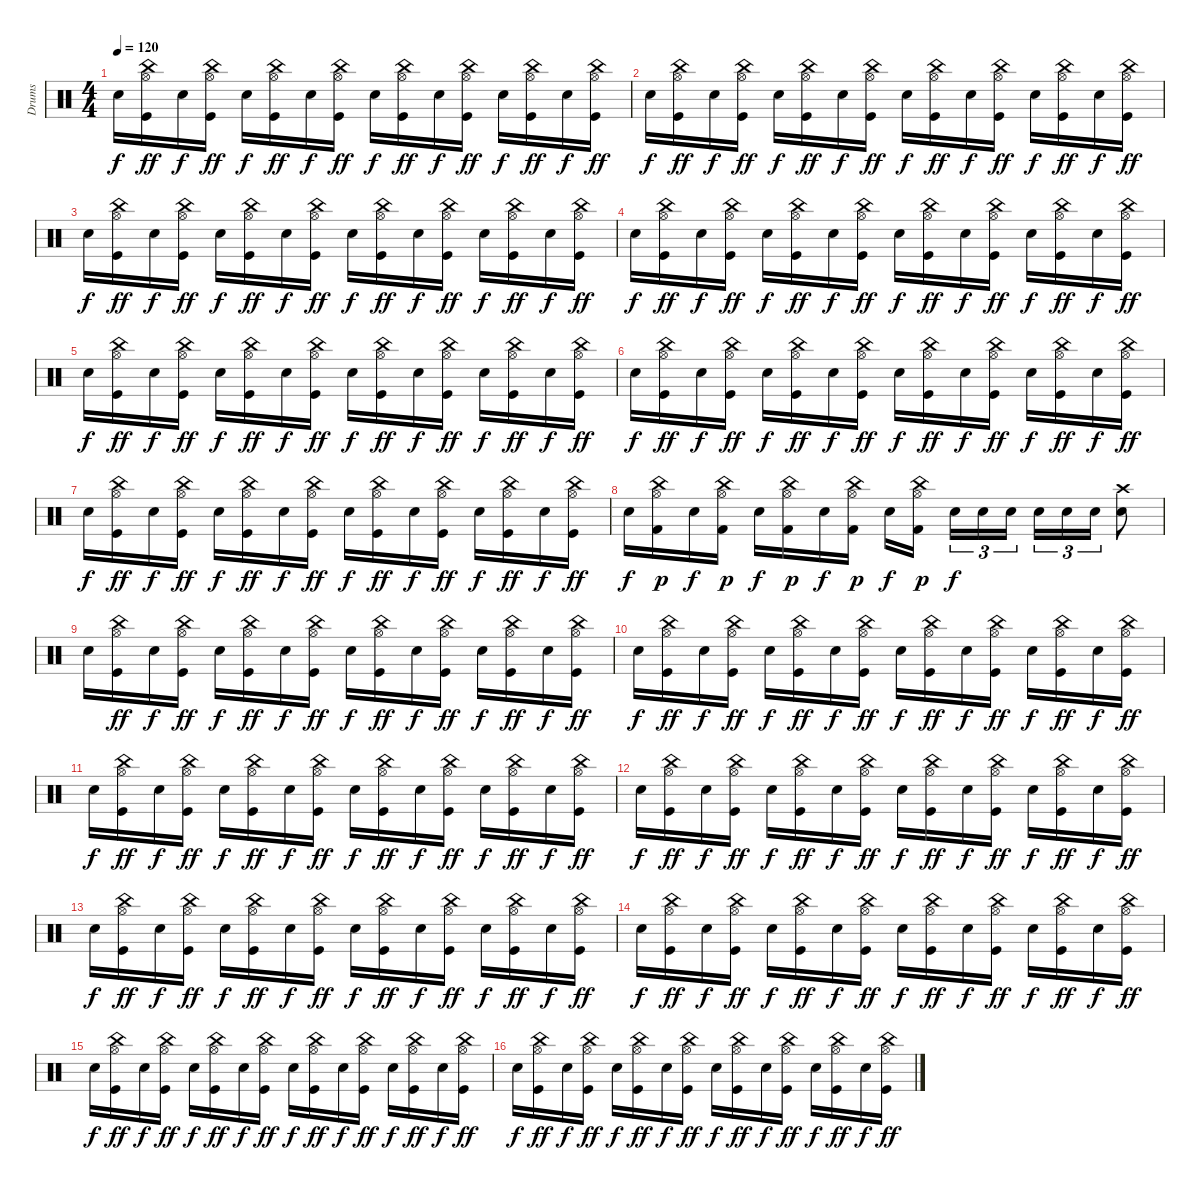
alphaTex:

\track ("Drums" "Drums") {instrument percussion}
\staff {score}
\articulation defaults
\ts (4 4)
\tempo 120
\clef neutral
\ks c "Electric Snare (hit)".16{dy f}
("China (hit)" "Hi-Hat (open)" "Kick (hit)").16{dy ff} "Electric Snare (hit)".16{dy f} ("China (hit)" "Hi-Hat (open)" "Kick (hit)").16{dy ff} "Electric Snare (hit)".16{dy f} ("China (hit)" "Hi-Hat (open)" "Kick (hit)").16{dy ff} "Electric Snare (hit)".16{dy f} ("China (hit)" "Hi-Hat (open)" "Kick (hit)").16{dy ff} "Electric Snare (hit)".16{dy f} ("China (hit)" "Hi-Hat (open)" "Kick (hit)").16{dy ff} "Electric Snare (hit)".16{dy f} ("China (hit)" "Hi-Hat (open)" "Kick (hit)").16{dy ff} "Electric Snare (hit)".16{dy f} ("China (hit)" "Hi-Hat (open)" "Kick (hit)").16{dy ff} "Electric Snare (hit)".16{dy f} ("China (hit)" "Hi-Hat (open)" "Kick (hit)").16{dy ff} |
"Electric Snare (hit)".16{dy f} ("China (hit)" "Hi-Hat (open)" "Kick (hit)").16{dy ff} "Electric Snare (hit)".16{dy f} ("China (hit)" "Hi-Hat (open)" "Kick (hit)").16{dy ff} "Electric Snare (hit)".16{dy f} ("China (hit)" "Hi-Hat (open)" "Kick (hit)").16{dy ff} "Electric Snare (hit)".16{dy f} ("China (hit)" "Hi-Hat (open)" "Kick (hit)").16{dy ff} "Electric Snare (hit)".16{dy f} ("China (hit)" "Hi-Hat (open)" "Kick (hit)").16{dy ff} "Electric Snare (hit)".16{dy f} ("China (hit)" "Hi-Hat (open)" "Kick (hit)").16{dy ff} "Electric Snare (hit)".16{dy f} ("China (hit)" "Hi-Hat (open)" "Kick (hit)").16{dy ff} "Electric Snare (hit)".16{dy f} ("China (hit)" "Hi-Hat (open)" "Kick (hit)").16{dy ff} |
"Electric Snare (hit)".16{dy f} ("China (hit)" "Hi-Hat (open)" "Kick (hit)").16{dy ff} "Electric Snare (hit)".16{dy f} ("China (hit)" "Hi-Hat (open)" "Kick (hit)").16{dy ff} "Electric Snare (hit)".16{dy f} ("China (hit)" "Hi-Hat (open)" "Kick (hit)").16{dy ff} "Electric Snare (hit)".16{dy f} ("China (hit)" "Hi-Hat (open)" "Kick (hit)").16{dy ff} "Electric Snare (hit)".16{dy f} ("China (hit)" "Hi-Hat (open)" "Kick (hit)").16{dy ff} "Electric Snare (hit)".16{dy f} ("China (hit)" "Hi-Hat (open)" "Kick (hit)").16{dy ff} "Electric Snare (hit)".16{dy f} ("China (hit)" "Hi-Hat (open)" "Kick (hit)").16{dy ff} "Electric Snare (hit)".16{dy f} ("China (hit)" "Hi-Hat (open)" "Kick (hit)").16{dy ff} |
"Electric Snare (hit)".16{dy f} ("China (hit)" "Hi-Hat (open)" "Kick (hit)").16{dy ff} "Electric Snare (hit)".16{dy f} ("China (hit)" "Hi-Hat (open)" "Kick (hit)").16{dy ff} "Electric Snare (hit)".16{dy f} ("China (hit)" "Hi-Hat (open)" "Kick (hit)").16{dy ff} "Electric Snare (hit)".16{dy f} ("China (hit)" "Hi-Hat (open)" "Kick (hit)").16{dy ff} "Electric Snare (hit)".16{dy f} ("China (hit)" "Hi-Hat (open)" "Kick (hit)").16{dy ff} "Electric Snare (hit)".16{dy f} ("China (hit)" "Hi-Hat (open)" "Kick (hit)").16{dy ff} "Electric Snare (hit)".16{dy f} ("China (hit)" "Hi-Hat (open)" "Kick (hit)").16{dy ff} "Electric Snare (hit)".16{dy f} ("China (hit)" "Hi-Hat (open)" "Kick (hit)").16{dy ff} |
"Electric Snare (hit)".16{dy f} ("China (hit)" "Hi-Hat (open)" "Kick (hit)").16{dy ff} "Electric Snare (hit)".16{dy f} ("China (hit)" "Hi-Hat (open)" "Kick (hit)").16{dy ff} "Electric Snare (hit)".16{dy f} ("China (hit)" "Hi-Hat (open)" "Kick (hit)").16{dy ff} "Electric Snare (hit)".16{dy f} ("China (hit)" "Hi-Hat (open)" "Kick (hit)").16{dy ff} "Electric Snare (hit)".16{dy f} ("China (hit)" "Hi-Hat (open)" "Kick (hit)").16{dy ff} "Electric Snare (hit)".16{dy f} ("China (hit)" "Hi-Hat (open)" "Kick (hit)").16{dy ff} "Electric Snare (hit)".16{dy f} ("China (hit)" "Hi-Hat (open)" "Kick (hit)").16{dy ff} "Electric Snare (hit)".16{dy f} ("China (hit)" "Hi-Hat (open)" "Kick (hit)").16{dy ff} |
"Electric Snare (hit)".16{dy f} ("China (hit)" "Hi-Hat (open)" "Kick (hit)").16{dy ff} "Electric Snare (hit)".16{dy f} ("China (hit)" "Hi-Hat (open)" "Kick (hit)").16{dy ff} "Electric Snare (hit)".16{dy f} ("China (hit)" "Hi-Hat (open)" "Kick (hit)").16{dy ff} "Electric Snare (hit)".16{dy f} ("China (hit)" "Hi-Hat (open)" "Kick (hit)").16{dy ff} "Electric Snare (hit)".16{dy f} ("China (hit)" "Hi-Hat (open)" "Kick (hit)").16{dy ff} "Electric Snare (hit)".16{dy f} ("China (hit)" "Hi-Hat (open)" "Kick (hit)").16{dy ff} "Electric Snare (hit)".16{dy f} ("China (hit)" "Hi-Hat (open)" "Kick (hit)").16{dy ff} "Electric Snare (hit)".16{dy f} ("China (hit)" "Hi-Hat (open)" "Kick (hit)").16{dy ff} |
"Electric Snare (hit)".16{dy f} ("China (hit)" "Hi-Hat (open)" "Kick (hit)").16{dy ff} "Electric Snare (hit)".16{dy f} ("China (hit)" "Hi-Hat (open)" "Kick (hit)").16{dy ff} "Electric Snare (hit)".16{dy f} ("China (hit)" "Hi-Hat (open)" "Kick (hit)").16{dy ff} "Electric Snare (hit)".16{dy f} ("China (hit)" "Hi-Hat (open)" "Kick (hit)").16{dy ff} "Electric Snare (hit)".16{dy f} ("China (hit)" "Hi-Hat (open)" "Kick (hit)").16{dy ff} "Electric Snare (hit)".16{dy f} ("China (hit)" "Hi-Hat (open)" "Kick (hit)").16{dy ff} "Electric Snare (hit)".16{dy f} ("China (hit)" "Hi-Hat (open)" "Kick (hit)").16{dy ff} "Electric Snare (hit)".16{dy f} ("China (hit)" "Hi-Hat (open)" "Kick (hit)").16{dy ff} |
"Electric Snare (hit)".16{dy f} ("Hi-Hat (open)" "China (hit)" "Kick (hit) 2").16{dy p} "Electric Snare (hit)".16{dy f} ("Hi-Hat (open)" "China (hit)" "Kick (hit) 2").16{dy p} "Electric Snare (hit)".16{dy f} ("Hi-Hat (open)" "China (hit)" "Kick (hit) 2").16{dy p} "Electric Snare (hit)".16{dy f} ("Hi-Hat (open)" "China (hit)" "Kick (hit) 2").16{dy p} "Electric Snare (hit)".16{dy f} ("Hi-Hat (open)" "China (hit)" "Kick (hit) 2").16{dy p} "Electric Snare (hit)".16{tu (3 2) dy f} "Electric Snare (hit)".16{tu (3 2)} "Electric Snare (hit)".16{tu (3 2)} "Electric Snare (hit)".16{tu (3 2)} "Electric Snare (hit)".16{tu (3 2)} "Electric Snare (hit)".16{tu (3 2)} ("Crash high (hit)" "Electric Snare (hit)").8 |
"Electric Snare (hit)".16 ("China (hit)" "Hi-Hat (open)" "Kick (hit)").16{dy ff} "Electric Snare (hit)".16{dy f} ("China (hit)" "Hi-Hat (open)" "Kick (hit)").16{dy ff} "Electric Snare (hit)".16{dy f} ("China (hit)" "Hi-Hat (open)" "Kick (hit)").16{dy ff} "Electric Snare (hit)".16{dy f} ("China (hit)" "Hi-Hat (open)" "Kick (hit)").16{dy ff} "Electric Snare (hit)".16{dy f} ("China (hit)" "Hi-Hat (open)" "Kick (hit)").16{dy ff} "Electric Snare (hit)".16{dy f} ("China (hit)" "Hi-Hat (open)" "Kick (hit)").16{dy ff} "Electric Snare (hit)".16{dy f} ("China (hit)" "Hi-Hat (open)" "Kick (hit)").16{dy ff} "Electric Snare (hit)".16{dy f} ("China (hit)" "Hi-Hat (open)" "Kick (hit)").16{dy ff} |
"Electric Snare (hit)".16{dy f} ("China (hit)" "Hi-Hat (open)" "Kick (hit)").16{dy ff} "Electric Snare (hit)".16{dy f} ("China (hit)" "Hi-Hat (open)" "Kick (hit)").16{dy ff} "Electric Snare (hit)".16{dy f} ("China (hit)" "Hi-Hat (open)" "Kick (hit)").16{dy ff} "Electric Snare (hit)".16{dy f} ("China (hit)" "Hi-Hat (open)" "Kick (hit)").16{dy ff} "Electric Snare (hit)".16{dy f} ("China (hit)" "Hi-Hat (open)" "Kick (hit)").16{dy ff} "Electric Snare (hit)".16{dy f} ("China (hit)" "Hi-Hat (open)" "Kick (hit)").16{dy ff} "Electric Snare (hit)".16{dy f} ("China (hit)" "Hi-Hat (open)" "Kick (hit)").16{dy ff} "Electric Snare (hit)".16{dy f} ("China (hit)" "Hi-Hat (open)" "Kick (hit)").16{dy ff} |
"Electric Snare (hit)".16{dy f} ("China (hit)" "Hi-Hat (open)" "Kick (hit)").16{dy ff} "Electric Snare (hit)".16{dy f} ("China (hit)" "Hi-Hat (open)" "Kick (hit)").16{dy ff} "Electric Snare (hit)".16{dy f} ("China (hit)" "Hi-Hat (open)" "Kick (hit)").16{dy ff} "Electric Snare (hit)".16{dy f} ("China (hit)" "Hi-Hat (open)" "Kick (hit)").16{dy ff} "Electric Snare (hit)".16{dy f} ("China (hit)" "Hi-Hat (open)" "Kick (hit)").16{dy ff} "Electric Snare (hit)".16{dy f} ("China (hit)" "Hi-Hat (open)" "Kick (hit)").16{dy ff} "Electric Snare (hit)".16{dy f} ("China (hit)" "Hi-Hat (open)" "Kick (hit)").16{dy ff} "Electric Snare (hit)".16{dy f} ("China (hit)" "Hi-Hat (open)" "Kick (hit)").16{dy ff} |
"Electric Snare (hit)".16{dy f} ("China (hit)" "Hi-Hat (open)" "Kick (hit)").16{dy ff} "Electric Snare (hit)".16{dy f} ("China (hit)" "Hi-Hat (open)" "Kick (hit)").16{dy ff} "Electric Snare (hit)".16{dy f} ("China (hit)" "Hi-Hat (open)" "Kick (hit)").16{dy ff} "Electric Snare (hit)".16{dy f} ("China (hit)" "Hi-Hat (open)" "Kick (hit)").16{dy ff} "Electric Snare (hit)".16{dy f} ("China (hit)" "Hi-Hat (open)" "Kick (hit)").16{dy ff} "Electric Snare (hit)".16{dy f} ("China (hit)" "Hi-Hat (open)" "Kick (hit)").16{dy ff} "Electric Snare (hit)".16{dy f} ("China (hit)" "Hi-Hat (open)" "Kick (hit)").16{dy ff} "Electric Snare (hit)".16{dy f} ("China (hit)" "Hi-Hat (open)" "Kick (hit)").16{dy ff} |
"Electric Snare (hit)".16{dy f} ("China (hit)" "Hi-Hat (open)" "Kick (hit)").16{dy ff} "Electric Snare (hit)".16{dy f} ("China (hit)" "Hi-Hat (open)" "Kick (hit)").16{dy ff} "Electric Snare (hit)".16{dy f} ("China (hit)" "Hi-Hat (open)" "Kick (hit)").16{dy ff} "Electric Snare (hit)".16{dy f} ("China (hit)" "Hi-Hat (open)" "Kick (hit)").16{dy ff} "Electric Snare (hit)".16{dy f} ("China (hit)" "Hi-Hat (open)" "Kick (hit)").16{dy ff} "Electric Snare (hit)".16{dy f} ("China (hit)" "Hi-Hat (open)" "Kick (hit)").16{dy ff} "Electric Snare (hit)".16{dy f} ("China (hit)" "Hi-Hat (open)" "Kick (hit)").16{dy ff} "Electric Snare (hit)".16{dy f} ("China (hit)" "Hi-Hat (open)" "Kick (hit)").16{dy ff} |
"Electric Snare (hit)".16{dy f} ("China (hit)" "Hi-Hat (open)" "Kick (hit)").16{dy ff} "Electric Snare (hit)".16{dy f} ("China (hit)" "Hi-Hat (open)" "Kick (hit)").16{dy ff} "Electric Snare (hit)".16{dy f} ("China (hit)" "Hi-Hat (open)" "Kick (hit)").16{dy ff} "Electric Snare (hit)".16{dy f} ("China (hit)" "Hi-Hat (open)" "Kick (hit)").16{dy ff} "Electric Snare (hit)".16{dy f} ("China (hit)" "Hi-Hat (open)" "Kick (hit)").16{dy ff} "Electric Snare (hit)".16{dy f} ("China (hit)" "Hi-Hat (open)" "Kick (hit)").16{dy ff} "Electric Snare (hit)".16{dy f} ("China (hit)" "Hi-Hat (open)" "Kick (hit)").16{dy ff} "Electric Snare (hit)".16{dy f} ("China (hit)" "Hi-Hat (open)" "Kick (hit)").16{dy ff} |
"Electric Snare (hit)".16{dy f} ("China (hit)" "Hi-Hat (open)" "Kick (hit)").16{dy ff} "Electric Snare (hit)".16{dy f} ("China (hit)" "Hi-Hat (open)" "Kick (hit)").16{dy ff} "Electric Snare (hit)".16{dy f} ("China (hit)" "Hi-Hat (open)" "Kick (hit)").16{dy ff} "Electric Snare (hit)".16{dy f} ("China (hit)" "Hi-Hat (open)" "Kick (hit)").16{dy ff} "Electric Snare (hit)".16{dy f} ("China (hit)" "Hi-Hat (open)" "Kick (hit)").16{dy ff} "Electric Snare (hit)".16{dy f} ("China (hit)" "Hi-Hat (open)" "Kick (hit)").16{dy ff} "Electric Snare (hit)".16{dy f} ("China (hit)" "Hi-Hat (open)" "Kick (hit)").16{dy ff} "Electric Snare (hit)".16{dy f} ("China (hit)" "Hi-Hat (open)" "Kick (hit)").16{dy ff} |
"Electric Snare (hit)".16{dy f} ("China (hit)" "Hi-Hat (open)" "Kick (hit)").16{dy ff} "Electric Snare (hit)".16{dy f} ("China (hit)" "Hi-Hat (open)" "Kick (hit)").16{dy ff} "Electric Snare (hit)".16{dy f} ("China (hit)" "Hi-Hat (open)" "Kick (hit)").16{dy ff} "Electric Snare (hit)".16{dy f} ("China (hit)" "Hi-Hat (open)" "Kick (hit)").16{dy ff} "Electric Snare (hit)".16{dy f} ("China (hit)" "Hi-Hat (open)" "Kick (hit)").16{dy ff} "Electric Snare (hit)".16{dy f} ("China (hit)" "Hi-Hat (open)" "Kick (hit)").16{dy ff} "Electric Snare (hit)".16{dy f} ("China (hit)" "Hi-Hat (open)" "Kick (hit)").16{dy ff} "Electric Snare (hit)".16{dy f} ("China (hit)" "Hi-Hat (open)" "Kick (hit)").16{dy ff}
